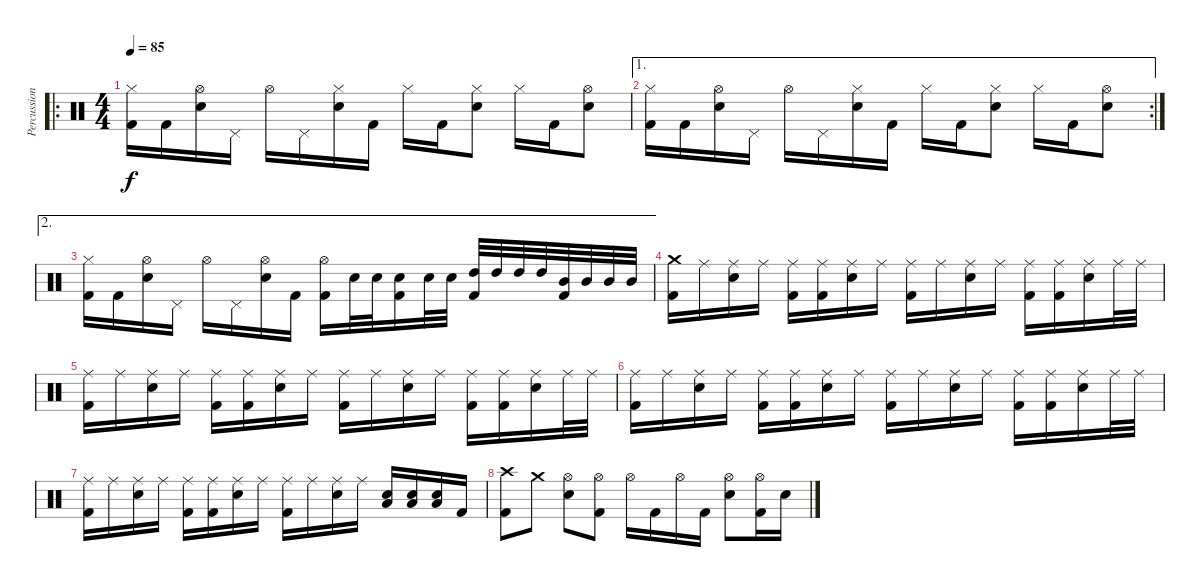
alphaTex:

\track ("Percussion" "Percussion") {instrument percussion}
\staff {score}
\articulation defaults
\ro
\ts (4 4)
\tempo 85
\clef neutral
\ks c
("Hi-Hat (closed)" "Kick (hit) 2").16{dy f} "Kick (hit) 2".16 ("Hi-Hat (open)" "Electric Snare (hit)").16 "Pedal Hi-Hat (hit)".16 "Hi-Hat (open)".16 "Pedal Hi-Hat (hit)".16 ("Hi-Hat (closed)" "Electric Snare (hit)").16 "Kick (hit) 2".16 "Hi-Hat (closed)".16 "Kick (hit) 2".16 ("Hi-Hat (closed)" "Electric Snare (hit)").8 "Hi-Hat (closed)".16 "Kick (hit) 2".16 ("Hi-Hat (open)" "Electric Snare (hit)").8 |
\ae 1
\rc 2
("Hi-Hat (closed)" "Kick (hit) 2").16 "Kick (hit) 2".16 ("Hi-Hat (open)" "Electric Snare (hit)").16 "Pedal Hi-Hat (hit)".16 "Hi-Hat (open)".16 "Pedal Hi-Hat (hit)".16 ("Hi-Hat (closed)" "Electric Snare (hit)").16 "Kick (hit) 2".16 "Hi-Hat (closed)".16 "Kick (hit) 2".16 ("Hi-Hat (closed)" "Electric Snare (hit)").8 "Hi-Hat (closed)".16 "Kick (hit) 2".16 ("Hi-Hat (open)" "Electric Snare (hit)").8 |
\ae 2
("Hi-Hat (closed)" "Kick (hit) 2").16 "Kick (hit) 2".16 ("Hi-Hat (open)" "Electric Snare (hit)").16 "Pedal Hi-Hat (hit)".16 "Hi-Hat (open)".16 "Pedal Hi-Hat (hit)".16 ("Hi-Hat (open)" "Electric Snare (hit)").16 "Kick (hit) 2".16 ("Hi-Hat (open)" "Kick (hit) 2").16 "Electric Snare (hit)".32 "Electric Snare (hit)".32 ("Electric Snare (hit)" "Kick (hit) 2").16 "Electric Snare (hit)".32 "Electric Snare (hit)".32 ("High Tom (hit)" "Kick (hit) 2").32 "High Tom (hit)".32 "High Tom (hit)".32 "High Tom (hit)".32 ("Mid Tom (hit)" "Kick (hit) 2").32 "Mid Tom (hit)".32 "Mid Tom (hit)".32 "Mid Tom (hit)".32 |
("Crash medium (hit)" "Kick (hit) 2").16 "Ride (middle)".16 ("Ride (middle)" "Electric Snare (hit)").16 "Ride (middle)".16 ("Ride (middle)" "Kick (hit) 2").16 ("Ride (middle)" "Kick (hit) 2").16 ("Ride (middle)" "Electric Snare (hit)").16 "Ride (middle)".16 ("Ride (middle)" "Kick (hit) 2").16 "Ride (middle)".16 ("Ride (middle)" "Electric Snare (hit)").16 "Ride (middle)".16 ("Ride (middle)" "Kick (hit) 2").16 ("Ride (middle)" "Kick (hit) 2").16 ("Ride (middle)" "Electric Snare (hit)").16 "Ride (middle)".32 "Ride (middle)".32 |
("Ride (middle)" "Kick (hit) 2").16 "Ride (middle)".16 ("Ride (middle)" "Electric Snare (hit)").16 "Ride (middle)".16 ("Ride (middle)" "Kick (hit) 2").16 ("Ride (middle)" "Kick (hit) 2").16 ("Ride (middle)" "Electric Snare (hit)").16 "Ride (middle)".16 ("Ride (middle)" "Kick (hit) 2").16 "Ride (middle)".16 ("Ride (middle)" "Electric Snare (hit)").16 "Ride (middle)".16 ("Ride (middle)" "Kick (hit) 2").16 ("Ride (middle)" "Kick (hit) 2").16 ("Ride (middle)" "Electric Snare (hit)").16 "Ride (middle)".32 "Ride (middle)".32 |
("Ride (middle)" "Kick (hit) 2").16 "Ride (middle)".16 ("Ride (middle)" "Electric Snare (hit)").16 "Ride (middle)".16 ("Ride (middle)" "Kick (hit) 2").16 ("Ride (middle)" "Kick (hit) 2").16 ("Ride (middle)" "Electric Snare (hit)").16 "Ride (middle)".16 ("Ride (middle)" "Kick (hit) 2").16 "Ride (middle)".16 ("Ride (middle)" "Electric Snare (hit)").16 "Ride (middle)".16 ("Ride (middle)" "Kick (hit) 2").16 ("Ride (middle)" "Kick (hit) 2").16 ("Ride (middle)" "Electric Snare (hit)").16 "Ride (middle)".32 "Ride (middle)".32 |
("Ride (middle)" "Kick (hit) 2").16 "Ride (middle)".16 ("Ride (middle)" "Electric Snare (hit)").16 "Ride (middle)".16 ("Ride (middle)" "Kick (hit) 2").16 ("Ride (middle)" "Kick (hit) 2").16 ("Ride (middle)" "Electric Snare (hit)").16 "Ride (middle)".16 ("Ride (middle)" "Kick (hit) 2").16 "Ride (middle)".16 ("Ride (middle)" "Electric Snare (hit)").16 "Ride (middle)".16 ("Electric Snare (hit)" "Low Tom (hit)").16 ("Electric Snare (hit)" "Low Tom (hit)").16 ("Electric Snare (hit)" "Low Tom (hit)").16 "Kick (hit) 2".16 |
("Crash high (hit)" "Kick (hit) 2").8 "Crash medium (hit)".8 ("Hi-Hat (open)" "Electric Snare (hit)").8 ("Hi-Hat (open)" "Kick (hit) 2").8 "Hi-Hat (open)".16 "Kick (hit) 2".16 "Hi-Hat (open)".16 "Kick (hit) 2".16 ("Hi-Hat (open)" "Electric Snare (hit)").8 ("Hi-Hat (open)" "Kick (hit) 2").16 "Electric Snare (hit)".16
